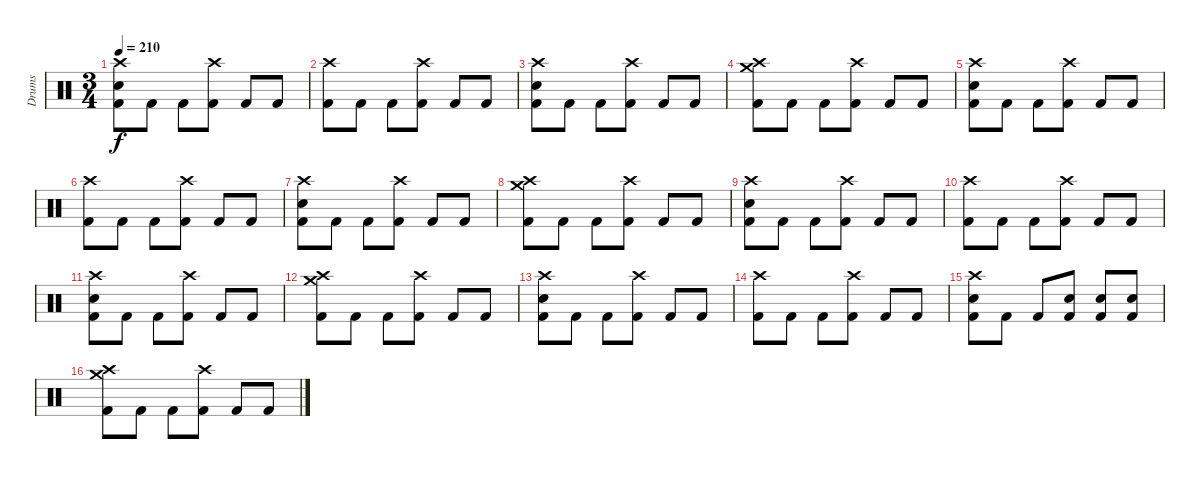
\track ("Drums" "Drums") {instrument percussion}
\staff {score}
\articulation defaults
\ts (3 4)
\tempo 210
\clef neutral
\ks c
("Crash high (hit)" "Electric Snare (hit)" "Kick (hit) 2").8{dy f} "Kick (hit) 2".8 "Kick (hit) 2".8 ("Crash high (hit)" "Kick (hit) 2").8 "Kick (hit) 2".8 "Kick (hit) 2".8 |
("Crash high (hit)" "Kick (hit) 2").8 "Kick (hit) 2".8 "Kick (hit) 2".8 ("Crash high (hit)" "Kick (hit) 2").8 "Kick (hit) 2".8 "Kick (hit) 2".8 |
("Crash high (hit)" "Electric Snare (hit)" "Kick (hit) 2").8 "Kick (hit) 2".8 "Kick (hit) 2".8 ("Crash high (hit)" "Kick (hit) 2").8 "Kick (hit) 2".8 "Kick (hit) 2".8 |
("Crash high (hit)" "Crash medium (hit)" "Kick (hit) 2").8 "Kick (hit) 2".8 "Kick (hit) 2".8 ("Crash high (hit)" "Kick (hit) 2").8 "Kick (hit) 2".8 "Kick (hit) 2".8 |
("Crash high (hit)" "Electric Snare (hit)" "Kick (hit) 2").8 "Kick (hit) 2".8 "Kick (hit) 2".8 ("Crash high (hit)" "Kick (hit) 2").8 "Kick (hit) 2".8 "Kick (hit) 2".8 |
("Crash high (hit)" "Kick (hit) 2").8 "Kick (hit) 2".8 "Kick (hit) 2".8 ("Crash high (hit)" "Kick (hit) 2").8 "Kick (hit) 2".8 "Kick (hit) 2".8 |
("Crash high (hit)" "Electric Snare (hit)" "Kick (hit) 2").8 "Kick (hit) 2".8 "Kick (hit) 2".8 ("Crash high (hit)" "Kick (hit) 2").8 "Kick (hit) 2".8 "Kick (hit) 2".8 |
("Crash high (hit)" "Crash medium (hit)" "Kick (hit) 2").8 "Kick (hit) 2".8 "Kick (hit) 2".8 ("Crash high (hit)" "Kick (hit) 2").8 "Kick (hit) 2".8 "Kick (hit) 2".8 |
("Crash high (hit)" "Electric Snare (hit)" "Kick (hit) 2").8 "Kick (hit) 2".8 "Kick (hit) 2".8 ("Crash high (hit)" "Kick (hit) 2").8 "Kick (hit) 2".8 "Kick (hit) 2".8 |
("Crash high (hit)" "Kick (hit) 2").8 "Kick (hit) 2".8 "Kick (hit) 2".8 ("Crash high (hit)" "Kick (hit) 2").8 "Kick (hit) 2".8 "Kick (hit) 2".8 |
("Crash high (hit)" "Electric Snare (hit)" "Kick (hit) 2").8 "Kick (hit) 2".8 "Kick (hit) 2".8 ("Crash high (hit)" "Kick (hit) 2").8 "Kick (hit) 2".8 "Kick (hit) 2".8 |
("Crash high (hit)" "Crash medium (hit)" "Kick (hit) 2").8 "Kick (hit) 2".8 "Kick (hit) 2".8 ("Crash high (hit)" "Kick (hit) 2").8 "Kick (hit) 2".8 "Kick (hit) 2".8 |
("Crash high (hit)" "Electric Snare (hit)" "Kick (hit) 2").8 "Kick (hit) 2".8 "Kick (hit) 2".8 ("Crash high (hit)" "Kick (hit) 2").8 "Kick (hit) 2".8 "Kick (hit) 2".8 |
("Crash high (hit)" "Kick (hit) 2").8 "Kick (hit) 2".8 "Kick (hit) 2".8 ("Crash high (hit)" "Kick (hit) 2").8 "Kick (hit) 2".8 "Kick (hit) 2".8 |
("Crash high (hit)" "Electric Snare (hit)" "Kick (hit) 2").8 "Kick (hit) 2".8 "Kick (hit) 2".8 ("Electric Snare (hit)" "Kick (hit) 2").8 ("Electric Snare (hit)" "Kick (hit) 2").8 ("Electric Snare (hit)" "Kick (hit) 2").8 |
("Crash high (hit)" "Crash medium (hit)" "Kick (hit) 2").8 "Kick (hit) 2".8 "Kick (hit) 2".8 ("Crash high (hit)" "Kick (hit) 2").8 "Kick (hit) 2".8 "Kick (hit) 2".8
